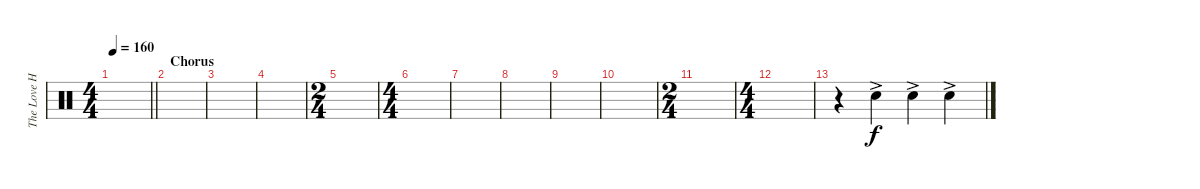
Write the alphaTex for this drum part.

\track ("The Love Haters (Hand Clap)(Drums)" "The Love H") {instrument percussion}
\staff {score}
\articulation defaults
\ts (4 4)
\tempo 160
\clef neutral
\barLineRight lightlight
\ks c
|
\section ("" "Chorus")
|
|
|
\ts (2 4)
|
\ts (4 4)
|
|
|
|
|
\ts (2 4)
|
\ts (4 4)
|
r.4 "Hand Clap (hit)"{ac}.4 "Hand Clap (hit)"{ac}.4 "Hand Clap (hit)"{ac}.4
